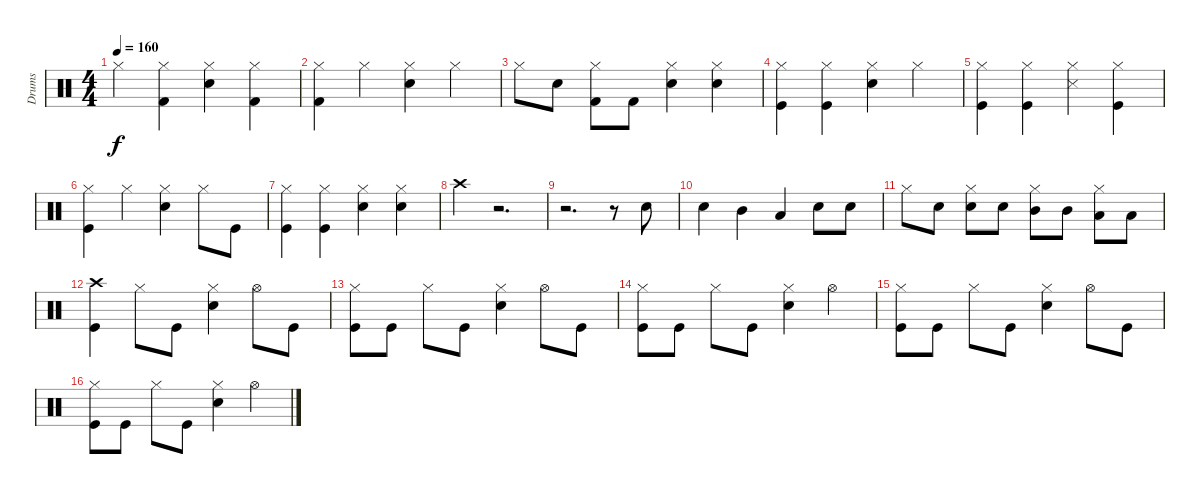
\track ("Drums" "Drums") {instrument percussion}
\staff {score}
\articulation defaults
\ts (4 4)
\tempo 160
\clef neutral
\ks c "Hi-Hat (closed)".4{dy f}
("Hi-Hat (closed)" "Kick (hit) 2").4 ("Hi-Hat (closed)" "Snare (hit) 2").4 ("Hi-Hat (closed)" "Kick (hit) 2").4 |
("Kick (hit) 2" "Hi-Hat (closed)").4 "Hi-Hat (closed)".4 ("Snare (hit) 2" "Hi-Hat (closed)").4 "Hi-Hat (closed)".4 |
"Hi-Hat (closed)".8 "Snare (hit) 2".8 ("Kick (hit) 2" "Hi-Hat (closed)").8 "Kick (hit) 2".8 ("Snare (hit) 2" "Hi-Hat (closed)").4 ("Snare (hit) 2" "Hi-Hat (closed)").4 |
("Kick (hit)" "Hi-Hat (closed)").4 ("Kick (hit)" "Hi-Hat (closed)").4 ("Snare (hit) 2" "Hi-Hat (closed)").4 "Hi-Hat (closed)".4 |
("Kick (hit)" "Hi-Hat (closed)").4 ("Kick (hit)" "Hi-Hat (closed)").4 ("Snare (side stick) 3" "Hi-Hat (closed)").4 ("Kick (hit)" "Hi-Hat (closed)").4 |
("Kick (hit)" "Hi-Hat (closed)").4 "Hi-Hat (closed)".4 ("Snare (hit) 2" "Hi-Hat (closed)").4 "Hi-Hat (closed)".8 "Kick (hit)".8 |
("Kick (hit)" "Hi-Hat (closed)").4 ("Kick (hit)" "Hi-Hat (closed)").4 ("Snare (hit) 2" "Hi-Hat (closed)").4 ("Snare (hit) 2" "Hi-Hat (closed)").4 |
"Crash high (hit)".4 r.2{d} |
r.2{d} r.8 "Snare (hit) 2".8 |
"Snare (hit) 2".4 "Mid Tom (hit)".4 "Low Floor Tom (hit)".4 "Snare (hit) 2".8 "Snare (hit) 2".8 |
"Hi-Hat (closed)".8 "Snare (hit) 2".8 ("Hi-Hat (closed)" "Snare (hit) 2").8 "Snare (hit) 2".8 ("Mid Tom (hit)" "Hi-Hat (closed)").8 "Mid Tom (hit)".8 ("Low Floor Tom (hit)" "Hi-Hat (closed)").8 "Low Floor Tom (hit)".8 |
("Kick (hit)" "Crash high (hit)").4 "Hi-Hat (closed)".8 "Kick (hit)".8 ("Snare (hit) 2" "Hi-Hat (closed)").4 "Hi-Hat (open)".8 "Kick (hit)".8 |
("Hi-Hat (closed)" "Kick (hit)").8 "Kick (hit)".8 "Hi-Hat (closed)".8 "Kick (hit)".8 ("Snare (hit) 2" "Hi-Hat (closed)").4 "Hi-Hat (open)".8 "Kick (hit)".8 |
("Hi-Hat (closed)" "Kick (hit)").8 "Kick (hit)".8 "Hi-Hat (closed)".8 "Kick (hit)".8 ("Hi-Hat (closed)" "Snare (hit) 2").4 "Hi-Hat (open)".4 |
("Hi-Hat (closed)" "Kick (hit)").8 "Kick (hit)".8 "Hi-Hat (closed)".8 "Kick (hit)".8 ("Hi-Hat (closed)" "Snare (hit) 2").4 "Hi-Hat (open)".8 "Kick (hit)".8 |
("Hi-Hat (closed)" "Kick (hit)").8 "Kick (hit)".8 "Hi-Hat (closed)".8 "Kick (hit)".8 ("Hi-Hat (closed)" "Snare (hit) 2").4 "Hi-Hat (open)".4
